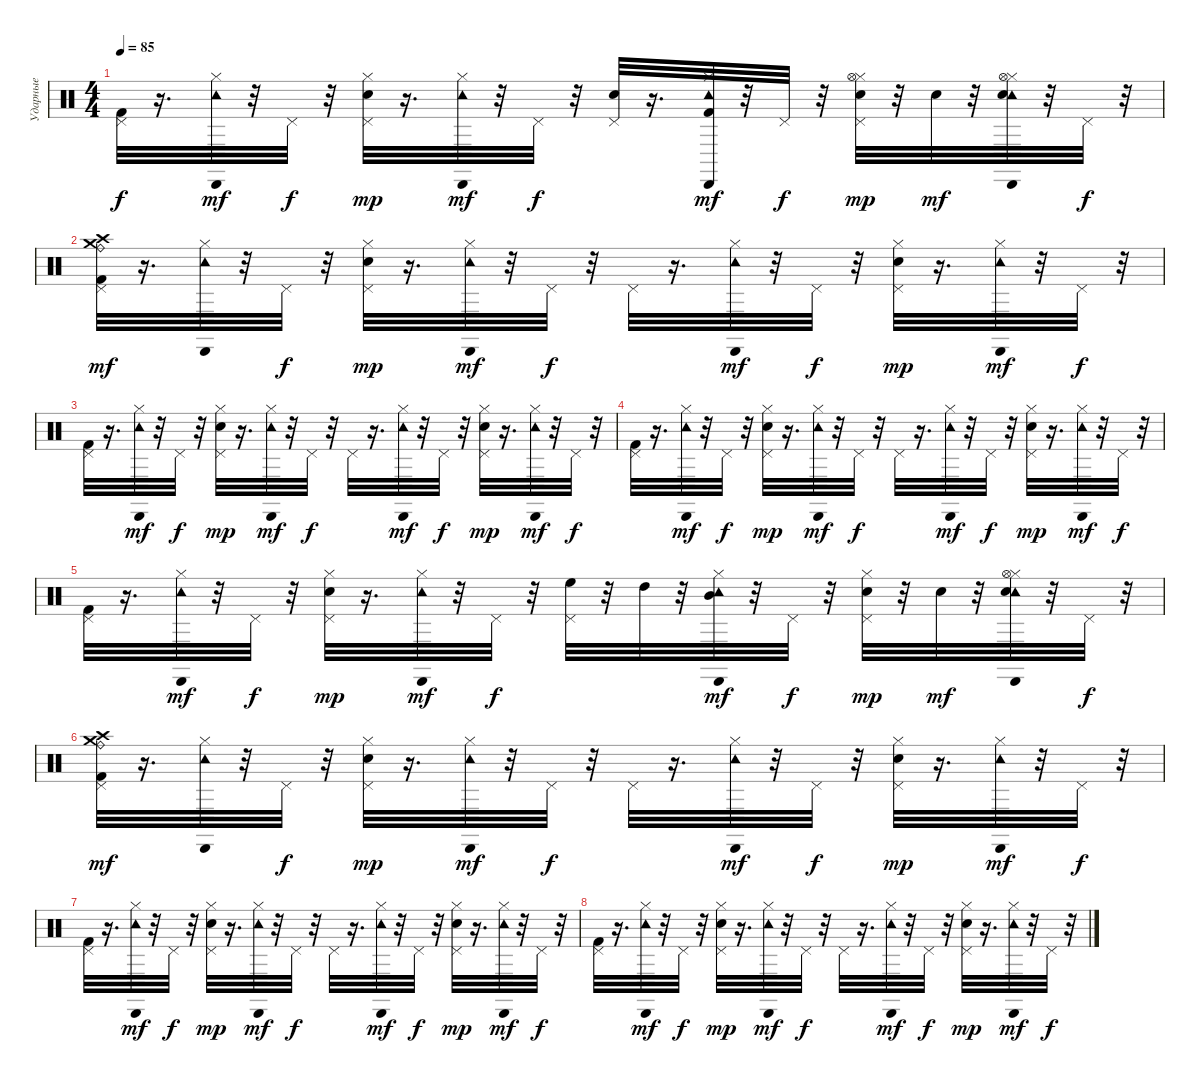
\track ("Ударные" "Ударные") {instrument percussion}
\staff {score}
\articulation defaults
\ts (4 4)
\tempo 85
\clef neutral
\ks c
("Pedal Hi-Hat (hit)" "Kick (hit) 2").32{dy f} r.16{d} ("Hi-Hat (closed)" "Cabasa (hit)" "Tambourine (hit)").32{dy mf} r.32 "Pedal Hi-Hat (hit)".32{dy f} r.32 ("Hi-Hat (closed)" "Pedal Hi-Hat (hit)" "Electric Snare (hit)").32{dy mp} r.16{d} ("Hi-Hat (closed)" "Cabasa (hit)" "Tambourine (hit)").32{dy mf} r.32 "Pedal Hi-Hat (hit)".32{dy f} r.32 ("Pedal Hi-Hat (hit)" "Snare (hit) 2").32 r.16{d} ("Hi-Hat (closed)" "Cabasa (hit)" "Kick (hit) 2" "Tambourine (hit)").32{dy mf} r.32 "Pedal Hi-Hat (hit)".32{dy f} r.32 ("Hi-Hat (closed)" "Hi-Hat (open)" "Pedal Hi-Hat (hit)" "Electric Snare (hit)").32{dy mp} r.32 "Snare (hit) 2".32{dy mf} r.32 ("Hi-Hat (closed)" "Hi-Hat (open)" "Cabasa (hit)" "Tambourine (hit)" "Snare (hit) 2").32 r.32 "Pedal Hi-Hat (hit)".32{dy f} r.32 |
("Ride (bell)" "Crash high (hit)" "Crash medium (hit)" "Pedal Hi-Hat (hit)" "Kick (hit) 2").32{dy mf} r.16{d} ("Hi-Hat (closed)" "Cabasa (hit)" "Tambourine (hit)").32 r.32 "Pedal Hi-Hat (hit)".32{dy f} r.32 ("Hi-Hat (closed)" "Pedal Hi-Hat (hit)" "Electric Snare (hit)").32{dy mp} r.16{d} ("Hi-Hat (closed)" "Cabasa (hit)" "Tambourine (hit)").32{dy mf} r.32 "Pedal Hi-Hat (hit)".32{dy f} r.32 "Pedal Hi-Hat (hit)".32 r.16{d} ("Hi-Hat (closed)" "Cabasa (hit)" "Tambourine (hit)").32{dy mf} r.32 "Pedal Hi-Hat (hit)".32{dy f} r.32 ("Hi-Hat (closed)" "Pedal Hi-Hat (hit)" "Electric Snare (hit)").32{dy mp} r.16{d} ("Hi-Hat (closed)" "Cabasa (hit)" "Tambourine (hit)").32{dy mf} r.32 "Pedal Hi-Hat (hit)".32{dy f} r.32 |
("Pedal Hi-Hat (hit)" "Kick (hit) 2").32 r.16{d} ("Hi-Hat (closed)" "Cabasa (hit)" "Tambourine (hit)").32{dy mf} r.32 "Pedal Hi-Hat (hit)".32{dy f} r.32 ("Hi-Hat (closed)" "Pedal Hi-Hat (hit)" "Electric Snare (hit)").32{dy mp} r.16{d} ("Hi-Hat (closed)" "Cabasa (hit)" "Tambourine (hit)").32{dy mf} r.32 "Pedal Hi-Hat (hit)".32{dy f} r.32 "Pedal Hi-Hat (hit)".32 r.16{d} ("Hi-Hat (closed)" "Cabasa (hit)" "Tambourine (hit)").32{dy mf} r.32 "Pedal Hi-Hat (hit)".32{dy f} r.32 ("Hi-Hat (closed)" "Pedal Hi-Hat (hit)" "Electric Snare (hit)").32{dy mp} r.16{d} ("Hi-Hat (closed)" "Cabasa (hit)" "Tambourine (hit)").32{dy mf} r.32 "Pedal Hi-Hat (hit)".32{dy f} r.32 |
("Pedal Hi-Hat (hit)" "Kick (hit) 2").32 r.16{d} ("Hi-Hat (closed)" "Cabasa (hit)" "Tambourine (hit)").32{dy mf} r.32 "Pedal Hi-Hat (hit)".32{dy f} r.32 ("Hi-Hat (closed)" "Pedal Hi-Hat (hit)" "Electric Snare (hit)").32{dy mp} r.16{d} ("Hi-Hat (closed)" "Cabasa (hit)" "Tambourine (hit)").32{dy mf} r.32 "Pedal Hi-Hat (hit)".32{dy f} r.32 "Pedal Hi-Hat (hit)".32 r.16{d} ("Hi-Hat (closed)" "Cabasa (hit)" "Tambourine (hit)").32{dy mf} r.32 "Pedal Hi-Hat (hit)".32{dy f} r.32 ("Hi-Hat (closed)" "Pedal Hi-Hat (hit)" "Electric Snare (hit)").32{dy mp} r.16{d} ("Hi-Hat (closed)" "Cabasa (hit)" "Tambourine (hit)").32{dy mf} r.32 "Pedal Hi-Hat (hit)".32{dy f} r.32 |
("Pedal Hi-Hat (hit)" "Kick (hit) 2").32 r.16{d} ("Hi-Hat (closed)" "Cabasa (hit)" "Tambourine (hit)").32{dy mf} r.32 "Pedal Hi-Hat (hit)".32{dy f} r.32 ("Hi-Hat (closed)" "Pedal Hi-Hat (hit)" "Electric Snare (hit)").32{dy mp} r.16{d} ("Hi-Hat (closed)" "Cabasa (hit)" "Tambourine (hit)").32{dy mf} r.32 "Pedal Hi-Hat (hit)".32{dy f} r.32 ("High Floor Tom (hit)" "Pedal Hi-Hat (hit)").32 r.32 "High Tom (hit)".32 r.32 ("Mid Tom (hit)" "Hi-Hat (closed)" "Cabasa (hit)" "Tambourine (hit)").32{dy mf} r.32 "Pedal Hi-Hat (hit)".32{dy f} r.32 ("Hi-Hat (closed)" "Pedal Hi-Hat (hit)" "Electric Snare (hit)").32{dy mp} r.32 "Snare (hit) 2".32{dy mf} r.32 ("Hi-Hat (closed)" "Hi-Hat (open)" "Cabasa (hit)" "Tambourine (hit)" "Snare (hit) 2").32 r.32 "Pedal Hi-Hat (hit)".32{dy f} r.32 |
("Ride (bell)" "Crash high (hit)" "Crash medium (hit)" "Pedal Hi-Hat (hit)" "Kick (hit) 2").32{dy mf} r.16{d} ("Hi-Hat (closed)" "Cabasa (hit)" "Tambourine (hit)").32 r.32 "Pedal Hi-Hat (hit)".32{dy f} r.32 ("Hi-Hat (closed)" "Pedal Hi-Hat (hit)" "Electric Snare (hit)").32{dy mp} r.16{d} ("Hi-Hat (closed)" "Cabasa (hit)" "Tambourine (hit)").32{dy mf} r.32 "Pedal Hi-Hat (hit)".32{dy f} r.32 "Pedal Hi-Hat (hit)".32 r.16{d} ("Hi-Hat (closed)" "Cabasa (hit)" "Tambourine (hit)").32{dy mf} r.32 "Pedal Hi-Hat (hit)".32{dy f} r.32 ("Hi-Hat (closed)" "Pedal Hi-Hat (hit)" "Electric Snare (hit)").32{dy mp} r.16{d} ("Hi-Hat (closed)" "Cabasa (hit)" "Tambourine (hit)").32{dy mf} r.32 "Pedal Hi-Hat (hit)".32{dy f} r.32 |
("Pedal Hi-Hat (hit)" "Kick (hit) 2").32 r.16{d} ("Hi-Hat (closed)" "Cabasa (hit)" "Tambourine (hit)").32{dy mf} r.32 "Pedal Hi-Hat (hit)".32{dy f} r.32 ("Hi-Hat (closed)" "Pedal Hi-Hat (hit)" "Electric Snare (hit)").32{dy mp} r.16{d} ("Hi-Hat (closed)" "Cabasa (hit)" "Tambourine (hit)").32{dy mf} r.32 "Pedal Hi-Hat (hit)".32{dy f} r.32 "Pedal Hi-Hat (hit)".32 r.16{d} ("Hi-Hat (closed)" "Cabasa (hit)" "Tambourine (hit)").32{dy mf} r.32 "Pedal Hi-Hat (hit)".32{dy f} r.32 ("Hi-Hat (closed)" "Pedal Hi-Hat (hit)" "Electric Snare (hit)").32{dy mp} r.16{d} ("Hi-Hat (closed)" "Cabasa (hit)" "Tambourine (hit)").32{dy mf} r.32 "Pedal Hi-Hat (hit)".32{dy f} r.32 |
("Pedal Hi-Hat (hit)" "Kick (hit) 2").32 r.16{d} ("Hi-Hat (closed)" "Cabasa (hit)" "Tambourine (hit)").32{dy mf} r.32 "Pedal Hi-Hat (hit)".32{dy f} r.32 ("Hi-Hat (closed)" "Pedal Hi-Hat (hit)" "Electric Snare (hit)").32{dy mp} r.16{d} ("Hi-Hat (closed)" "Cabasa (hit)" "Tambourine (hit)").32{dy mf} r.32 "Pedal Hi-Hat (hit)".32{dy f} r.32 "Pedal Hi-Hat (hit)".32 r.16{d} ("Hi-Hat (closed)" "Cabasa (hit)" "Tambourine (hit)").32{dy mf} r.32 "Pedal Hi-Hat (hit)".32{dy f} r.32 ("Hi-Hat (closed)" "Pedal Hi-Hat (hit)" "Electric Snare (hit)").32{dy mp} r.16{d} ("Hi-Hat (closed)" "Cabasa (hit)" "Tambourine (hit)").32{dy mf} r.32 "Pedal Hi-Hat (hit)".32{dy f} r.32
